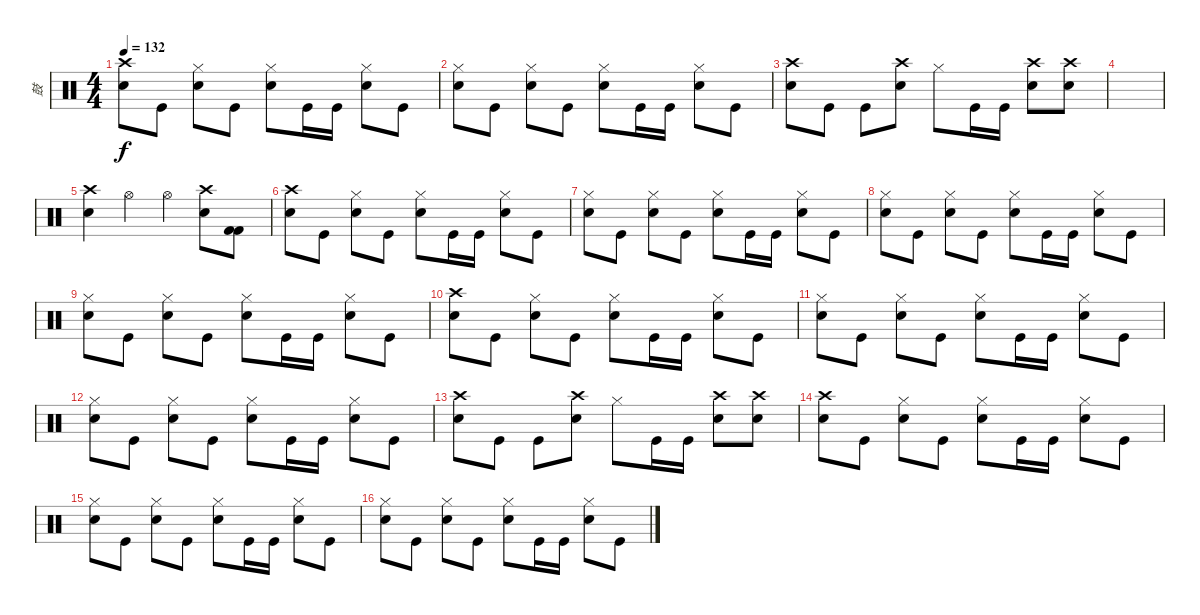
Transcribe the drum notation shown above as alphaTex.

\track ("鼓" "鼓") {instrument percussion}
\staff {score}
\articulation defaults
\ts (4 4)
\tempo 132
\clef neutral
\ks c
("Crash high (hit)" "Electric Snare (hit)").8{dy f} "Kick (hit)".8 ("Hi-Hat (closed)" "Electric Snare (hit)").8 "Kick (hit)".8 ("Hi-Hat (closed)" "Electric Snare (hit)").8 "Kick (hit)".16 "Kick (hit)".16 ("Hi-Hat (closed)" "Electric Snare (hit)").8 "Kick (hit)".8 |
("Hi-Hat (closed)" "Electric Snare (hit)").8 "Kick (hit)".8 ("Hi-Hat (closed)" "Electric Snare (hit)").8 "Kick (hit)".8 ("Hi-Hat (closed)" "Electric Snare (hit)").8 "Kick (hit)".16 "Kick (hit)".16 ("Hi-Hat (closed)" "Electric Snare (hit)").8 "Kick (hit)".8 |
("Crash high (hit)" "Electric Snare (hit)").8 "Kick (hit)".8 "Kick (hit)".8 ("Crash high (hit)" "Electric Snare (hit)").8 "Hi-Hat (closed)".8 "Kick (hit)".16 "Kick (hit)".16 ("Crash high (hit)" "Electric Snare (hit)").8 ("Crash high (hit)" "Electric Snare (hit)").8 |
|
("Crash high (hit)" "Electric Snare (hit)").4 "Hi-Hat (open)".4 "Hi-Hat (open)".4 ("Crash high (hit)" "Electric Snare (hit)").8 ("Kick (hit) 2" "Kick (hit) 2").8 |
("Crash high (hit)" "Electric Snare (hit)").8 "Kick (hit)".8 ("Hi-Hat (closed)" "Electric Snare (hit)").8 "Kick (hit)".8 ("Hi-Hat (closed)" "Electric Snare (hit)").8 "Kick (hit)".16 "Kick (hit)".16 ("Hi-Hat (closed)" "Electric Snare (hit)").8 "Kick (hit)".8 |
("Hi-Hat (closed)" "Electric Snare (hit)").8 "Kick (hit)".8 ("Hi-Hat (closed)" "Electric Snare (hit)").8 "Kick (hit)".8 ("Hi-Hat (closed)" "Electric Snare (hit)").8 "Kick (hit)".16 "Kick (hit)".16 ("Hi-Hat (closed)" "Electric Snare (hit)").8 "Kick (hit)".8 |
("Hi-Hat (closed)" "Electric Snare (hit)").8 "Kick (hit)".8 ("Hi-Hat (closed)" "Electric Snare (hit)").8 "Kick (hit)".8 ("Hi-Hat (closed)" "Electric Snare (hit)").8 "Kick (hit)".16 "Kick (hit)".16 ("Hi-Hat (closed)" "Electric Snare (hit)").8 "Kick (hit)".8 |
("Hi-Hat (closed)" "Electric Snare (hit)").8 "Kick (hit)".8 ("Hi-Hat (closed)" "Electric Snare (hit)").8 "Kick (hit)".8 ("Hi-Hat (closed)" "Electric Snare (hit)").8 "Kick (hit)".16 "Kick (hit)".16 ("Hi-Hat (closed)" "Electric Snare (hit)").8 "Kick (hit)".8 |
("Crash high (hit)" "Electric Snare (hit)").8 "Kick (hit)".8 ("Hi-Hat (closed)" "Electric Snare (hit)").8 "Kick (hit)".8 ("Hi-Hat (closed)" "Electric Snare (hit)").8 "Kick (hit)".16 "Kick (hit)".16 ("Hi-Hat (closed)" "Electric Snare (hit)").8 "Kick (hit)".8 |
("Hi-Hat (closed)" "Electric Snare (hit)").8 "Kick (hit)".8 ("Hi-Hat (closed)" "Electric Snare (hit)").8 "Kick (hit)".8 ("Hi-Hat (closed)" "Electric Snare (hit)").8 "Kick (hit)".16 "Kick (hit)".16 ("Hi-Hat (closed)" "Electric Snare (hit)").8 "Kick (hit)".8 |
("Hi-Hat (closed)" "Electric Snare (hit)").8 "Kick (hit)".8 ("Hi-Hat (closed)" "Electric Snare (hit)").8 "Kick (hit)".8 ("Hi-Hat (closed)" "Electric Snare (hit)").8 "Kick (hit)".16 "Kick (hit)".16 ("Hi-Hat (closed)" "Electric Snare (hit)").8 "Kick (hit)".8 |
("Crash high (hit)" "Electric Snare (hit)").8 "Kick (hit)".8 "Kick (hit)".8 ("Crash high (hit)" "Electric Snare (hit)").8 "Hi-Hat (closed)".8 "Kick (hit)".16 "Kick (hit)".16 ("Crash high (hit)" "Electric Snare (hit)").8 ("Crash high (hit)" "Electric Snare (hit)").8 |
("Crash high (hit)" "Electric Snare (hit)").8 "Kick (hit)".8 ("Hi-Hat (closed)" "Electric Snare (hit)").8 "Kick (hit)".8 ("Hi-Hat (closed)" "Electric Snare (hit)").8 "Kick (hit)".16 "Kick (hit)".16 ("Hi-Hat (closed)" "Electric Snare (hit)").8 "Kick (hit)".8 |
("Hi-Hat (closed)" "Electric Snare (hit)").8 "Kick (hit)".8 ("Hi-Hat (closed)" "Electric Snare (hit)").8 "Kick (hit)".8 ("Hi-Hat (closed)" "Electric Snare (hit)").8 "Kick (hit)".16 "Kick (hit)".16 ("Hi-Hat (closed)" "Electric Snare (hit)").8 "Kick (hit)".8 |
("Hi-Hat (closed)" "Electric Snare (hit)").8 "Kick (hit)".8 ("Hi-Hat (closed)" "Electric Snare (hit)").8 "Kick (hit)".8 ("Hi-Hat (closed)" "Electric Snare (hit)").8 "Kick (hit)".16 "Kick (hit)".16 ("Hi-Hat (closed)" "Electric Snare (hit)").8 "Kick (hit)".8
